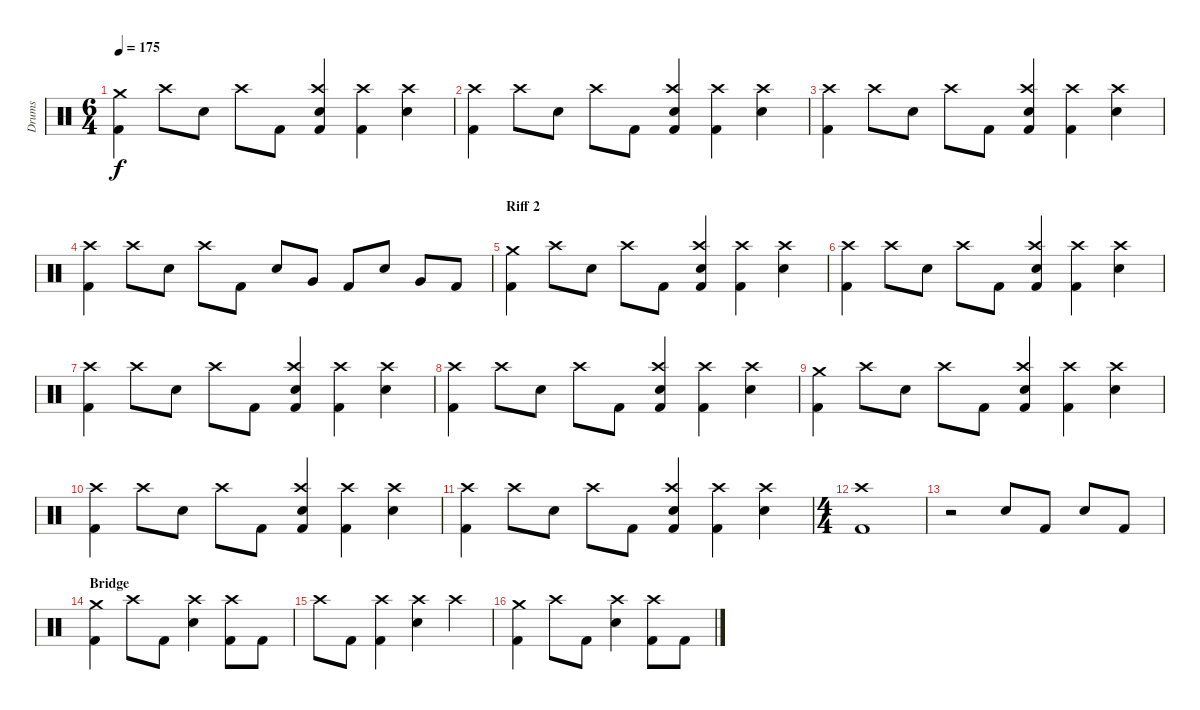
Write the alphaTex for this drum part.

\track ("Drums" "Drums") {instrument percussion}
\staff {score}
\articulation defaults
\ts (6 4)
\tempo 175
\clef neutral
\ks c
("Crash medium (hit)" "Kick (hit) 2").4{dy f} "Crash high (hit)".8 "Electric Snare (hit)".8 "Crash high (hit)".8 "Kick (hit) 2".8 ("Crash high (hit)" "Electric Snare (hit)" "Kick (hit) 2").4 ("Crash high (hit)" "Kick (hit) 2").4 ("Crash high (hit)" "Electric Snare (hit)").4 |
("Crash high (hit)" "Kick (hit) 2").4 "Crash high (hit)".8 "Electric Snare (hit)".8 "Crash high (hit)".8 "Kick (hit) 2".8 ("Crash high (hit)" "Electric Snare (hit)" "Kick (hit) 2").4 ("Crash high (hit)" "Kick (hit) 2").4 ("Crash high (hit)" "Electric Snare (hit)").4 |
("Crash high (hit)" "Kick (hit) 2").4 "Crash high (hit)".8 "Electric Snare (hit)".8 "Crash high (hit)".8 "Kick (hit) 2".8 ("Crash high (hit)" "Electric Snare (hit)" "Kick (hit) 2").4 ("Crash high (hit)" "Kick (hit) 2").4 ("Crash high (hit)" "Electric Snare (hit)").4 |
("Crash high (hit)" "Kick (hit) 2").4 "Crash high (hit)".8 "Electric Snare (hit)".8 "Crash high (hit)".8 "Kick (hit) 2".8 "Electric Snare (hit)".8 "Very Low Tom (hit)".8 "Kick (hit) 2".8 "Electric Snare (hit)".8 "Very Low Tom (hit)".8 "Kick (hit) 2".8 |
\section ("" "Riff 2")
("Crash medium (hit)" "Kick (hit) 2").4 "Crash high (hit)".8 "Electric Snare (hit)".8 "Crash high (hit)".8 "Kick (hit) 2".8 ("Crash high (hit)" "Electric Snare (hit)" "Kick (hit) 2").4 ("Crash high (hit)" "Kick (hit) 2").4 ("Crash high (hit)" "Electric Snare (hit)").4 |
("Crash high (hit)" "Kick (hit) 2").4 "Crash high (hit)".8 "Electric Snare (hit)".8 "Crash high (hit)".8 "Kick (hit) 2".8 ("Crash high (hit)" "Electric Snare (hit)" "Kick (hit) 2").4 ("Crash high (hit)" "Kick (hit) 2").4 ("Crash high (hit)" "Electric Snare (hit)").4 |
("Crash high (hit)" "Kick (hit) 2").4 "Crash high (hit)".8 "Electric Snare (hit)".8 "Crash high (hit)".8 "Kick (hit) 2".8 ("Crash high (hit)" "Electric Snare (hit)" "Kick (hit) 2").4 ("Crash high (hit)" "Kick (hit) 2").4 ("Crash high (hit)" "Electric Snare (hit)").4 |
("Crash high (hit)" "Kick (hit) 2").4 "Crash high (hit)".8 "Electric Snare (hit)".8 "Crash high (hit)".8 "Kick (hit) 2".8 ("Crash high (hit)" "Electric Snare (hit)" "Kick (hit) 2").4 ("Crash high (hit)" "Kick (hit) 2").4 ("Crash high (hit)" "Electric Snare (hit)").4 |
("Crash medium (hit)" "Kick (hit) 2").4 "Crash high (hit)".8 "Electric Snare (hit)".8 "Crash high (hit)".8 "Kick (hit) 2".8 ("Crash high (hit)" "Electric Snare (hit)" "Kick (hit) 2").4 ("Crash high (hit)" "Kick (hit) 2").4 ("Crash high (hit)" "Electric Snare (hit)").4 |
("Crash high (hit)" "Kick (hit) 2").4 "Crash high (hit)".8 "Electric Snare (hit)".8 "Crash high (hit)".8 "Kick (hit) 2".8 ("Crash high (hit)" "Electric Snare (hit)" "Kick (hit) 2").4 ("Crash high (hit)" "Kick (hit) 2").4 ("Crash high (hit)" "Electric Snare (hit)").4 |
("Crash high (hit)" "Kick (hit) 2").4 "Crash high (hit)".8 "Electric Snare (hit)".8 "Crash high (hit)".8 "Kick (hit) 2".8 ("Crash high (hit)" "Electric Snare (hit)" "Kick (hit) 2").4 ("Crash high (hit)" "Kick (hit) 2").4 ("Crash high (hit)" "Electric Snare (hit)").4 |
\ts (4 4)
("Crash high (hit)" "Kick (hit) 2").1 |
r.2 "Electric Snare (hit)".8 "Kick (hit) 2".8 "Electric Snare (hit)".8 "Kick (hit) 2".8 |
\section ("" "Bridge")
("Crash medium (hit)" "Kick (hit) 2").4 "Crash high (hit)".8 "Kick (hit) 2".8 ("Crash high (hit)" "Electric Snare (hit)").4 ("Crash high (hit)" "Kick (hit) 2").8 "Kick (hit) 2".8 |
"Crash high (hit)".8 "Kick (hit) 2".8 ("Crash high (hit)" "Kick (hit) 2").4 ("Crash high (hit)" "Electric Snare (hit)").4 "Crash high (hit)".4 |
("Crash medium (hit)" "Kick (hit) 2").4 "Crash high (hit)".8 "Kick (hit) 2".8 ("Crash high (hit)" "Electric Snare (hit)").4 ("Crash high (hit)" "Kick (hit) 2").8 "Kick (hit) 2".8
